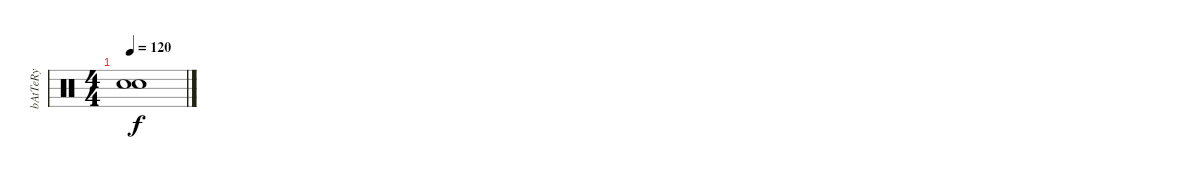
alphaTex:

\track ("bAtTeRy" "bAtTeRy") {instrument percussion}
\staff {score}
\articulation defaults
\ts (4 4)
\tempo 120
\clef neutral
\ks c
("Snare (hit)"{t} "Snare (hit)"{t}).1{dy f}
